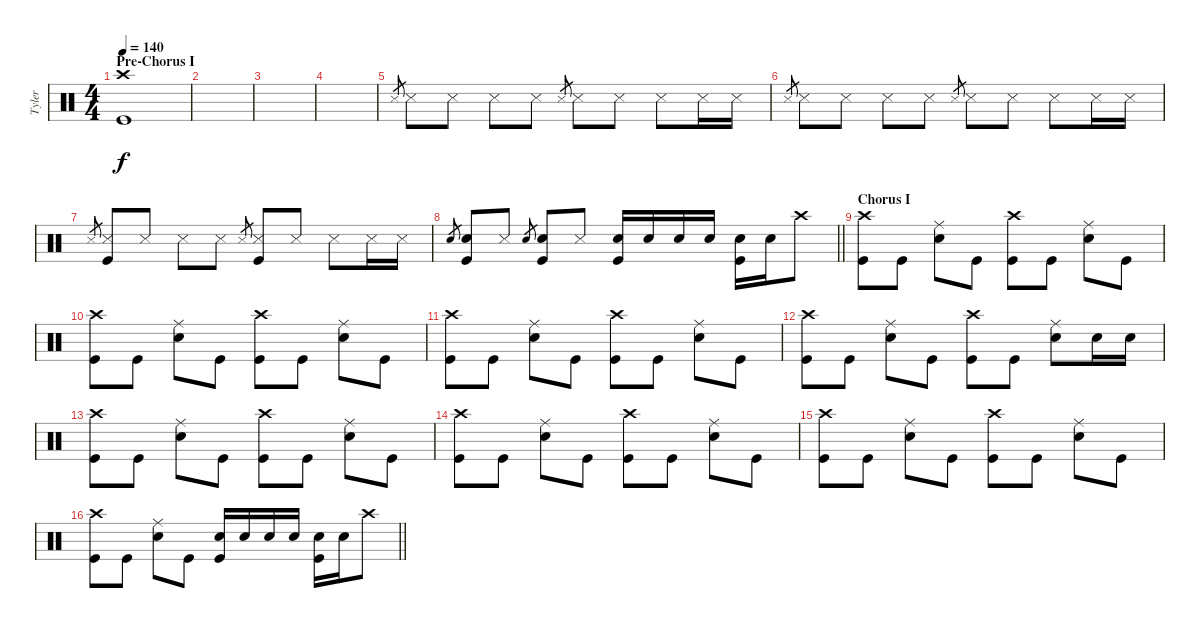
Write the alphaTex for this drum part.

\track ("Tyler" "Tyler") {instrument percussion}
\staff {score}
\articulation defaults
\ts (4 4)
\section ("" "Pre-Chorus I")
\tempo 140
\clef neutral
\ks c
("Crash high (hit)" "Kick (hit)").1{dy f} |
|
|
|
"Snare (side stick) 3".8{gr} "Snare (side stick) 3".8 "Snare (side stick) 3".8 "Snare (side stick) 3".8 "Snare (side stick) 3".8 "Snare (side stick) 3".8{gr} "Snare (side stick) 3".8 "Snare (side stick) 3".8 "Snare (side stick) 3".8 "Snare (side stick) 3".16 "Snare (side stick) 3".16 |
"Snare (side stick) 3".8{gr} "Snare (side stick) 3".8 "Snare (side stick) 3".8 "Snare (side stick) 3".8 "Snare (side stick) 3".8 "Snare (side stick) 3".8{gr} "Snare (side stick) 3".8 "Snare (side stick) 3".8 "Snare (side stick) 3".8 "Snare (side stick) 3".16 "Snare (side stick) 3".16 |
"Snare (side stick) 3".8{gr} ("Kick (hit)" "Snare (side stick) 3").8 "Snare (side stick) 3".8 "Snare (side stick) 3".8 "Snare (side stick) 3".8 "Snare (side stick) 3".8{gr} ("Kick (hit)" "Snare (side stick) 3").8 "Snare (side stick) 3".8 "Snare (side stick) 3".8 "Snare (side stick) 3".16 "Snare (side stick) 3".16 |
\barLineRight lightlight "Snare (hit) 2".8{gr}
("Kick (hit)" "Snare (hit) 2").8 "Snare (side stick) 3".8 "Snare (hit) 2".8{gr} ("Kick (hit)" "Snare (hit) 2").8 "Snare (side stick) 3".8 ("Kick (hit)" "Snare (hit) 2").16 "Snare (hit) 2".16 "Snare (hit) 2".16 "Snare (hit) 2".16 ("Kick (hit)" "Snare (hit) 2").16 "Snare (hit) 2".16 "Crash high (hit)".8 |
\section ("" "Chorus I")
("Crash high (hit)" "Kick (hit)").8 "Kick (hit)".8 ("Ride (middle)" "Snare (hit) 2").8 "Kick (hit)".8 ("Crash high (hit)" "Kick (hit)").8 "Kick (hit)".8 ("Ride (middle)" "Snare (hit) 2").8 "Kick (hit)".8 |
("Crash high (hit)" "Kick (hit)").8 "Kick (hit)".8 ("Ride (middle)" "Snare (hit) 2").8 "Kick (hit)".8 ("Crash high (hit)" "Kick (hit)").8 "Kick (hit)".8 ("Ride (middle)" "Snare (hit) 2").8 "Kick (hit)".8 |
("Crash high (hit)" "Kick (hit)").8 "Kick (hit)".8 ("Ride (middle)" "Snare (hit) 2").8 "Kick (hit)".8 ("Crash high (hit)" "Kick (hit)").8 "Kick (hit)".8 ("Ride (middle)" "Snare (hit) 2").8 "Kick (hit)".8 |
("Crash high (hit)" "Kick (hit)").8 "Kick (hit)".8 ("Ride (middle)" "Snare (hit) 2").8 "Kick (hit)".8 ("Crash high (hit)" "Kick (hit)").8 "Kick (hit)".8 ("Ride (middle)" "Snare (hit) 2").8 "Snare (hit) 2".16 "Snare (hit) 2".16 |
("Crash high (hit)" "Kick (hit)").8 "Kick (hit)".8 ("Ride (middle)" "Snare (hit) 2").8 "Kick (hit)".8 ("Crash high (hit)" "Kick (hit)").8 "Kick (hit)".8 ("Ride (middle)" "Snare (hit) 2").8 "Kick (hit)".8 |
("Crash high (hit)" "Kick (hit)").8 "Kick (hit)".8 ("Ride (middle)" "Snare (hit) 2").8 "Kick (hit)".8 ("Crash high (hit)" "Kick (hit)").8 "Kick (hit)".8 ("Ride (middle)" "Snare (hit) 2").8 "Kick (hit)".8 |
("Crash high (hit)" "Kick (hit)").8 "Kick (hit)".8 ("Ride (middle)" "Snare (hit) 2").8 "Kick (hit)".8 ("Crash high (hit)" "Kick (hit)").8 "Kick (hit)".8 ("Ride (middle)" "Snare (hit) 2").8 "Kick (hit)".8 |
\barLineRight lightlight
("Crash high (hit)" "Kick (hit)").8 "Kick (hit)".8 ("Ride (middle)" "Snare (hit) 2").8 "Kick (hit)".8 ("Kick (hit)" "Snare (hit) 2").16 "Snare (hit) 2".16 "Snare (hit) 2".16 "Snare (hit) 2".16 ("Kick (hit)" "Snare (hit) 2").16 "Snare (hit) 2".16 "Crash high (hit)".8
